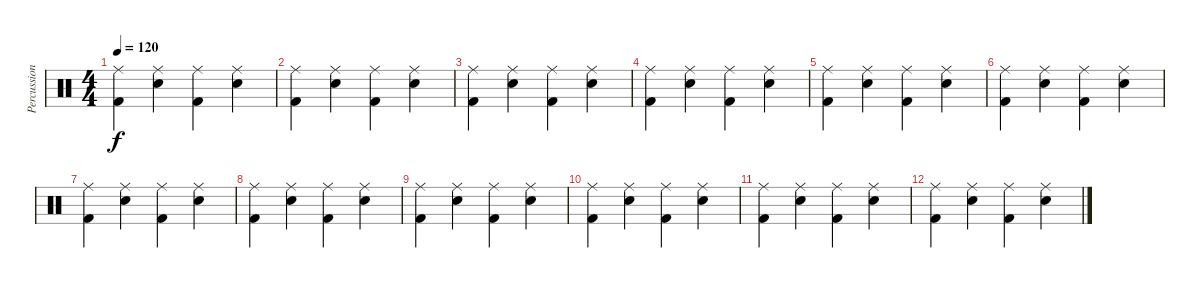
\track ("Percussions" "Percussion") {instrument percussion}
\staff {score}
\articulation defaults
\ts (4 4)
\tempo 120
\clef neutral
\ks c
("Ride (middle)" "Kick (hit) 2").4{dy f} ("Ride (middle)" "Electric Snare (hit)").4 ("Ride (middle)" "Kick (hit) 2").4 ("Ride (middle)" "Electric Snare (hit)").4 |
("Ride (middle)" "Kick (hit) 2").4 ("Ride (middle)" "Electric Snare (hit)").4 ("Ride (middle)" "Kick (hit) 2").4 ("Ride (middle)" "Electric Snare (hit)").4 |
("Ride (middle)" "Kick (hit) 2").4 ("Ride (middle)" "Electric Snare (hit)").4 ("Ride (middle)" "Kick (hit) 2").4 ("Ride (middle)" "Electric Snare (hit)").4 |
("Ride (middle)" "Kick (hit) 2").4 ("Ride (middle)" "Electric Snare (hit)").4 ("Ride (middle)" "Kick (hit) 2").4 ("Ride (middle)" "Electric Snare (hit)").4 |
("Ride (middle)" "Kick (hit) 2").4 ("Ride (middle)" "Electric Snare (hit)").4 ("Ride (middle)" "Kick (hit) 2").4 ("Ride (middle)" "Electric Snare (hit)").4 |
("Ride (middle)" "Kick (hit) 2").4 ("Ride (middle)" "Electric Snare (hit)").4 ("Ride (middle)" "Kick (hit) 2").4 ("Ride (middle)" "Electric Snare (hit)").4 |
("Ride (middle)" "Kick (hit) 2").4 ("Ride (middle)" "Electric Snare (hit)").4 ("Ride (middle)" "Kick (hit) 2").4 ("Ride (middle)" "Electric Snare (hit)").4 |
("Ride (middle)" "Kick (hit) 2").4 ("Ride (middle)" "Electric Snare (hit)").4 ("Ride (middle)" "Kick (hit) 2").4 ("Ride (middle)" "Electric Snare (hit)").4 |
("Ride (middle)" "Kick (hit) 2").4 ("Ride (middle)" "Electric Snare (hit)").4 ("Ride (middle)" "Kick (hit) 2").4 ("Ride (middle)" "Electric Snare (hit)").4 |
("Ride (middle)" "Kick (hit) 2").4 ("Ride (middle)" "Electric Snare (hit)").4 ("Ride (middle)" "Kick (hit) 2").4 ("Ride (middle)" "Electric Snare (hit)").4 |
("Ride (middle)" "Kick (hit) 2").4 ("Ride (middle)" "Electric Snare (hit)").4 ("Ride (middle)" "Kick (hit) 2").4 ("Ride (middle)" "Electric Snare (hit)").4 |
("Ride (middle)" "Kick (hit) 2").4 ("Ride (middle)" "Electric Snare (hit)").4 ("Ride (middle)" "Kick (hit) 2").4 ("Ride (middle)" "Electric Snare (hit)").4
